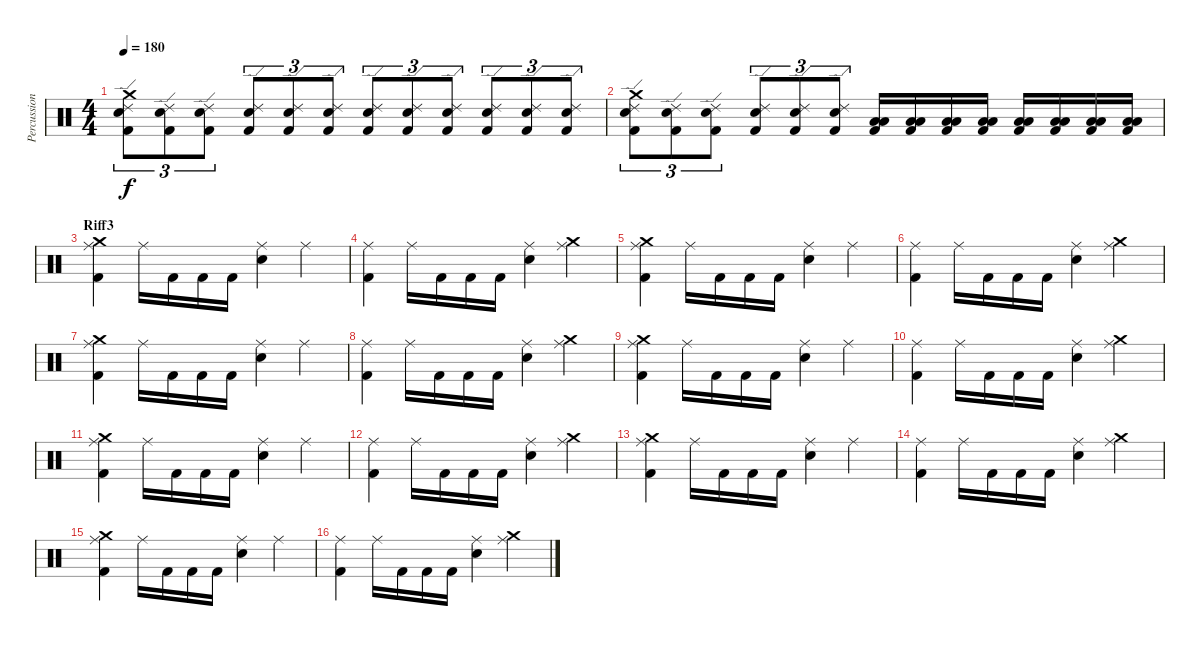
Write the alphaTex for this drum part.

\track ("Percussioni" "Percussion") {instrument percussion}
\staff {score}
\articulation defaults
\ts (4 4)
\tempo 180
\clef neutral
\ks c
("Crash medium (hit)" "Ride (edge) 2" "Snare (hit) 2" "Kick (hit) 2").8{tu (3 2) dy f} ("Ride (edge) 2" "Snare (hit) 2" "Kick (hit) 2").8{tu (3 2)} ("Ride (edge) 2" "Snare (hit) 2" "Kick (hit) 2").8{tu (3 2)} ("Ride (edge) 2" "Snare (hit) 2" "Kick (hit) 2").8{tu (3 2)} ("Ride (edge) 2" "Snare (hit) 2" "Kick (hit) 2").8{tu (3 2)} ("Ride (edge) 2" "Snare (hit) 2" "Kick (hit) 2").8{tu (3 2)} ("Ride (edge) 2" "Snare (hit) 2" "Kick (hit) 2").8{tu (3 2)} ("Ride (edge) 2" "Snare (hit) 2" "Kick (hit) 2").8{tu (3 2)} ("Ride (edge) 2" "Snare (hit) 2" "Kick (hit) 2").8{tu (3 2)} ("Ride (edge) 2" "Snare (hit) 2" "Kick (hit) 2").8{tu (3 2)} ("Ride (edge) 2" "Snare (hit) 2" "Kick (hit) 2").8{tu (3 2)} ("Ride (edge) 2" "Snare (hit) 2" "Kick (hit) 2").8{tu (3 2)} |
("Crash medium (hit)" "Ride (edge) 2" "Snare (hit) 2" "Kick (hit) 2").8{tu (3 2)} ("Ride (edge) 2" "Snare (hit) 2" "Kick (hit) 2").8{tu (3 2)} ("Ride (edge) 2" "Snare (hit) 2" "Kick (hit) 2").8{tu (3 2)} ("Ride (edge) 2" "Snare (hit) 2" "Kick (hit) 2").8{tu (3 2)} ("Ride (edge) 2" "Snare (hit) 2" "Kick (hit) 2").8{tu (3 2)} ("Ride (edge) 2" "Snare (hit) 2" "Kick (hit) 2").8{tu (3 2)} ("Low Tom (hit)" "Low Floor Tom (hit)" "Kick (hit) 2").16 ("Low Tom (hit)" "Low Floor Tom (hit)" "Kick (hit) 2").16 ("Low Tom (hit)" "Low Floor Tom (hit)" "Kick (hit) 2").16 ("Low Tom (hit)" "Low Floor Tom (hit)" "Kick (hit) 2").16 ("Low Tom (hit)" "Low Floor Tom (hit)" "Kick (hit) 2").16 ("Low Tom (hit)" "Low Floor Tom (hit)" "Kick (hit) 2").16 ("Low Tom (hit)" "Low Floor Tom (hit)" "Kick (hit) 2").16 ("Low Tom (hit)" "Low Floor Tom (hit)" "Kick (hit) 2").16 |
\section ("" "Riff3")
("Crash medium (hit)" "Ride (middle)" "Kick (hit) 2").4 "Ride (middle)".16 "Kick (hit) 2".16 "Kick (hit) 2".16 "Kick (hit) 2".16 ("Ride (middle)" "Electric Snare (hit)").4 "Ride (middle)".4 |
("Ride (middle)" "Kick (hit) 2").4 "Ride (middle)".16 "Kick (hit) 2".16 "Kick (hit) 2".16 "Kick (hit) 2".16 ("Ride (middle)" "Electric Snare (hit)").4 ("Crash medium (hit)" "Ride (middle)").4 |
("Crash medium (hit)" "Ride (middle)" "Kick (hit) 2").4 "Ride (middle)".16 "Kick (hit) 2".16 "Kick (hit) 2".16 "Kick (hit) 2".16 ("Ride (middle)" "Electric Snare (hit)").4 "Ride (middle)".4 |
("Ride (middle)" "Kick (hit) 2").4 "Ride (middle)".16 "Kick (hit) 2".16 "Kick (hit) 2".16 "Kick (hit) 2".16 ("Ride (middle)" "Electric Snare (hit)").4 ("Crash medium (hit)" "Ride (middle)").4 |
("Crash medium (hit)" "Ride (middle)" "Kick (hit) 2").4 "Ride (middle)".16 "Kick (hit) 2".16 "Kick (hit) 2".16 "Kick (hit) 2".16 ("Ride (middle)" "Electric Snare (hit)").4 "Ride (middle)".4 |
("Ride (middle)" "Kick (hit) 2").4 "Ride (middle)".16 "Kick (hit) 2".16 "Kick (hit) 2".16 "Kick (hit) 2".16 ("Ride (middle)" "Electric Snare (hit)").4 ("Crash medium (hit)" "Ride (middle)").4 |
("Crash medium (hit)" "Ride (middle)" "Kick (hit) 2").4 "Ride (middle)".16 "Kick (hit) 2".16 "Kick (hit) 2".16 "Kick (hit) 2".16 ("Ride (middle)" "Electric Snare (hit)").4 "Ride (middle)".4 |
("Ride (middle)" "Kick (hit) 2").4 "Ride (middle)".16 "Kick (hit) 2".16 "Kick (hit) 2".16 "Kick (hit) 2".16 ("Ride (middle)" "Electric Snare (hit)").4 ("Crash medium (hit)" "Ride (middle)").4 |
("Crash medium (hit)" "Ride (middle)" "Kick (hit) 2").4 "Ride (middle)".16 "Kick (hit) 2".16 "Kick (hit) 2".16 "Kick (hit) 2".16 ("Ride (middle)" "Electric Snare (hit)").4 "Ride (middle)".4 |
("Ride (middle)" "Kick (hit) 2").4 "Ride (middle)".16 "Kick (hit) 2".16 "Kick (hit) 2".16 "Kick (hit) 2".16 ("Ride (middle)" "Electric Snare (hit)").4 ("Crash medium (hit)" "Ride (middle)").4 |
("Crash medium (hit)" "Ride (middle)" "Kick (hit) 2").4 "Ride (middle)".16 "Kick (hit) 2".16 "Kick (hit) 2".16 "Kick (hit) 2".16 ("Ride (middle)" "Electric Snare (hit)").4 "Ride (middle)".4 |
("Ride (middle)" "Kick (hit) 2").4 "Ride (middle)".16 "Kick (hit) 2".16 "Kick (hit) 2".16 "Kick (hit) 2".16 ("Ride (middle)" "Electric Snare (hit)").4 ("Crash medium (hit)" "Ride (middle)").4 |
("Crash medium (hit)" "Ride (middle)" "Kick (hit) 2").4 "Ride (middle)".16 "Kick (hit) 2".16 "Kick (hit) 2".16 "Kick (hit) 2".16 ("Ride (middle)" "Electric Snare (hit)").4 "Ride (middle)".4 |
("Ride (middle)" "Kick (hit) 2").4 "Ride (middle)".16 "Kick (hit) 2".16 "Kick (hit) 2".16 "Kick (hit) 2".16 ("Ride (middle)" "Electric Snare (hit)").4 ("Crash medium (hit)" "Ride (middle)").4
